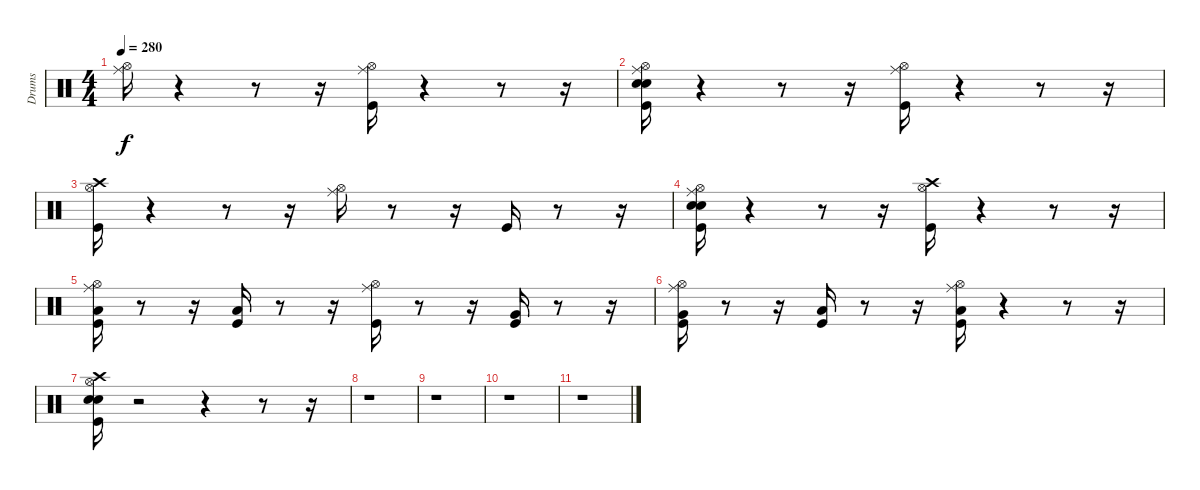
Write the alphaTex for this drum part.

\track ("Drums" "Drums") {instrument percussion}
\staff {score}
\articulation defaults
\ts (4 4)
\tempo 280
\clef neutral
\ks c
("Ride (middle)" "Hi-Hat (open)").16{dy f} r.4 r.8 r.16 ("Hi-Hat (open)" "Ride (middle)" "Kick (hit)").16 r.4 r.8 r.16 |
("Ride (middle)" "Hi-Hat (open)" "Electric Snare (hit)" "Snare (hit) 2" "Kick (hit)").16 r.4 r.8 r.16 ("Hi-Hat (open)" "Ride (middle)" "Kick (hit)").16 r.4 r.8 r.16 |
("Crash high (hit)" "Hi-Hat (open)" "Kick (hit)").16 r.4 r.8 r.16 ("Hi-Hat (open)" "Ride (middle)").16 r.8 r.16 "Kick (hit)".16 r.8 r.16 |
("Hi-Hat (open)" "Ride (middle)" "Kick (hit)" "Snare (hit) 2" "Electric Snare (hit)").16 r.4 r.8 r.16 ("Hi-Hat (open)" "Crash high (hit)" "Kick (hit)").16 r.4 r.8 r.16 |
("Ride (middle)" "Hi-Hat (open)" "Low Tom (hit)" "Kick (hit)").16 r.8 r.16 ("Low Tom (hit)" "Kick (hit)").16 r.8 r.16 ("Hi-Hat (open)" "Ride (middle)" "Kick (hit)").16 r.8 r.16 ("Kick (hit)" "Very Low Tom (hit)").16 r.8 r.16 |
("Ride (middle)" "Hi-Hat (open)" "Kick (hit)" "Very Low Tom (hit)").16 r.8 r.16 ("Kick (hit)" "Low Floor Tom (hit)").16 r.8 r.16 ("Low Floor Tom (hit)" "Ride (middle)" "Hi-Hat (open)" "Kick (hit)").16 r.4 r.8 r.16 |
("Kick (hit)" "Snare (hit) 2" "Electric Snare (hit)" "Hi-Hat (open)" "Crash high (hit)").16 r.2 r.4 r.8 r.16 |
r.1 |
r.1 |
r.1 |
r.1
